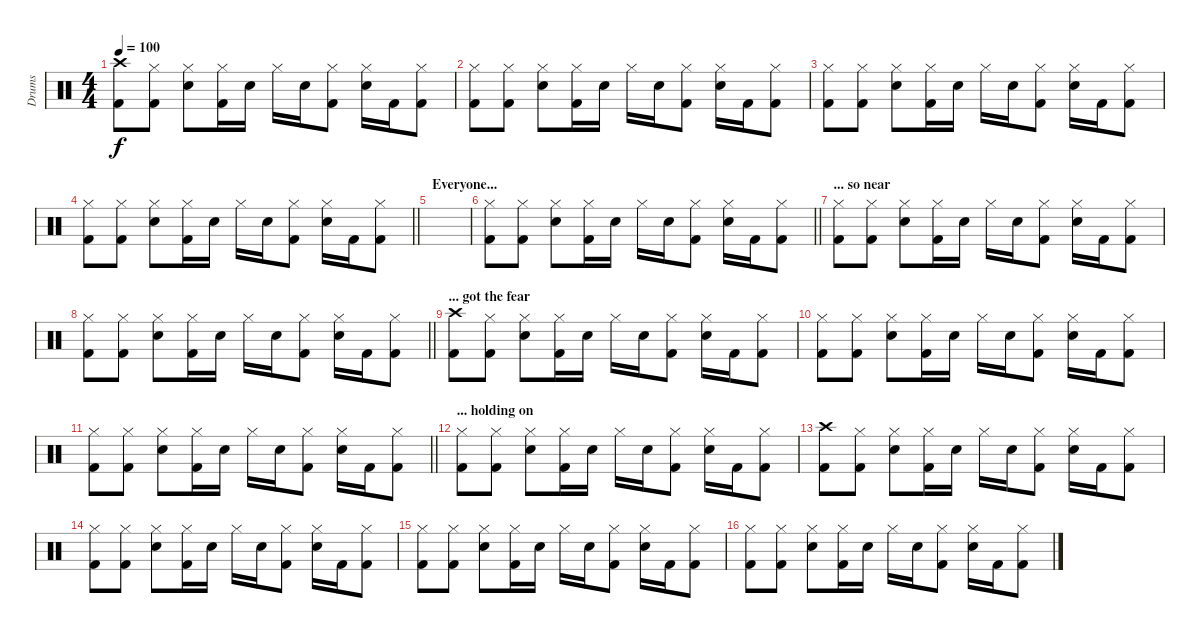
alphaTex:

\track ("Drums" "Drums") {instrument percussion}
\staff {score}
\articulation defaults
\ts (4 4)
\tempo 100
\clef neutral
\ks c
("Crash high (hit)" "Kick (hit) 2").8{dy f} ("Hi-Hat (closed)" "Kick (hit) 2").8 ("Hi-Hat (closed)" "Snare (hit) 2").8 ("Hi-Hat (closed)" "Kick (hit) 2").16 "Snare (hit) 2".16 "Hi-Hat (closed)".16 "Snare (hit) 2".16 ("Hi-Hat (closed)" "Kick (hit) 2").8 ("Hi-Hat (closed)" "Snare (hit) 2").16 "Kick (hit) 2".16 ("Hi-Hat (closed)" "Kick (hit) 2").8 |
("Hi-Hat (closed)" "Kick (hit) 2").8 ("Hi-Hat (closed)" "Kick (hit) 2").8 ("Hi-Hat (closed)" "Snare (hit) 2").8 ("Hi-Hat (closed)" "Kick (hit) 2").16 "Snare (hit) 2".16 "Hi-Hat (closed)".16 "Snare (hit) 2".16 ("Hi-Hat (closed)" "Kick (hit) 2").8 ("Hi-Hat (closed)" "Snare (hit) 2").16 "Kick (hit) 2".16 ("Hi-Hat (closed)" "Kick (hit) 2").8 |
("Hi-Hat (closed)" "Kick (hit) 2").8 ("Hi-Hat (closed)" "Kick (hit) 2").8 ("Hi-Hat (closed)" "Snare (hit) 2").8 ("Hi-Hat (closed)" "Kick (hit) 2").16 "Snare (hit) 2".16 "Hi-Hat (closed)".16 "Snare (hit) 2".16 ("Hi-Hat (closed)" "Kick (hit) 2").8 ("Hi-Hat (closed)" "Snare (hit) 2").16 "Kick (hit) 2".16 ("Hi-Hat (closed)" "Kick (hit) 2").8 |
\barLineRight lightlight
("Hi-Hat (closed)" "Kick (hit) 2").8 ("Hi-Hat (closed)" "Kick (hit) 2").8 ("Hi-Hat (closed)" "Snare (hit) 2").8 ("Hi-Hat (closed)" "Kick (hit) 2").16 "Snare (hit) 2".16 "Hi-Hat (closed)".16 "Snare (hit) 2".16 ("Hi-Hat (closed)" "Kick (hit) 2").8 ("Hi-Hat (closed)" "Snare (hit) 2").16 "Kick (hit) 2".16 ("Hi-Hat (closed)" "Kick (hit) 2").8 |
\section ("" "Everyone...")
|
\barLineRight lightlight
("Hi-Hat (closed)" "Kick (hit) 2").8 ("Hi-Hat (closed)" "Kick (hit) 2").8 ("Hi-Hat (closed)" "Snare (hit) 2").8 ("Hi-Hat (closed)" "Kick (hit) 2").16 "Snare (hit) 2".16 "Hi-Hat (closed)".16 "Snare (hit) 2".16 ("Hi-Hat (closed)" "Kick (hit) 2").8 ("Hi-Hat (closed)" "Snare (hit) 2").16 "Kick (hit) 2".16 ("Hi-Hat (closed)" "Kick (hit) 2").8 |
\section ("" "... so near")
("Hi-Hat (closed)" "Kick (hit) 2").8 ("Hi-Hat (closed)" "Kick (hit) 2").8 ("Hi-Hat (closed)" "Snare (hit) 2").8 ("Hi-Hat (closed)" "Kick (hit) 2").16 "Snare (hit) 2".16 "Hi-Hat (closed)".16 "Snare (hit) 2".16 ("Hi-Hat (closed)" "Kick (hit) 2").8 ("Hi-Hat (closed)" "Snare (hit) 2").16 "Kick (hit) 2".16 ("Hi-Hat (closed)" "Kick (hit) 2").8 |
\barLineRight lightlight
("Hi-Hat (closed)" "Kick (hit) 2").8 ("Hi-Hat (closed)" "Kick (hit) 2").8 ("Hi-Hat (closed)" "Snare (hit) 2").8 ("Hi-Hat (closed)" "Kick (hit) 2").16 "Snare (hit) 2".16 "Hi-Hat (closed)".16 "Snare (hit) 2".16 ("Hi-Hat (closed)" "Kick (hit) 2").8 ("Hi-Hat (closed)" "Snare (hit) 2").16 "Kick (hit) 2".16 ("Hi-Hat (closed)" "Kick (hit) 2").8 |
\section ("" "... got the fear")
("Crash high (hit)" "Kick (hit) 2").8 ("Hi-Hat (closed)" "Kick (hit) 2").8 ("Hi-Hat (closed)" "Snare (hit) 2").8 ("Hi-Hat (closed)" "Kick (hit) 2").16 "Snare (hit) 2".16 "Hi-Hat (closed)".16 "Snare (hit) 2".16 ("Hi-Hat (closed)" "Kick (hit) 2").8 ("Hi-Hat (closed)" "Snare (hit) 2").16 "Kick (hit) 2".16 ("Hi-Hat (closed)" "Kick (hit) 2").8 |
("Hi-Hat (closed)" "Kick (hit) 2").8 ("Hi-Hat (closed)" "Kick (hit) 2").8 ("Hi-Hat (closed)" "Snare (hit) 2").8 ("Hi-Hat (closed)" "Kick (hit) 2").16 "Snare (hit) 2".16 "Hi-Hat (closed)".16 "Snare (hit) 2".16 ("Hi-Hat (closed)" "Kick (hit) 2").8 ("Hi-Hat (closed)" "Snare (hit) 2").16 "Kick (hit) 2".16 ("Hi-Hat (closed)" "Kick (hit) 2").8 |
\barLineRight lightlight
("Hi-Hat (closed)" "Kick (hit) 2").8 ("Hi-Hat (closed)" "Kick (hit) 2").8 ("Hi-Hat (closed)" "Snare (hit) 2").8 ("Hi-Hat (closed)" "Kick (hit) 2").16 "Snare (hit) 2".16 "Hi-Hat (closed)".16 "Snare (hit) 2".16 ("Hi-Hat (closed)" "Kick (hit) 2").8 ("Hi-Hat (closed)" "Snare (hit) 2").16 "Kick (hit) 2".16 ("Hi-Hat (closed)" "Kick (hit) 2").8 |
\section ("" "... holding on")
("Hi-Hat (closed)" "Kick (hit) 2").8 ("Hi-Hat (closed)" "Kick (hit) 2").8 ("Hi-Hat (closed)" "Snare (hit) 2").8 ("Hi-Hat (closed)" "Kick (hit) 2").16 "Snare (hit) 2".16 "Hi-Hat (closed)".16 "Snare (hit) 2".16 ("Hi-Hat (closed)" "Kick (hit) 2").8 ("Hi-Hat (closed)" "Snare (hit) 2").16 "Kick (hit) 2".16 ("Hi-Hat (closed)" "Kick (hit) 2").8 |
("Crash high (hit)" "Kick (hit) 2").8 ("Hi-Hat (closed)" "Kick (hit) 2").8 ("Hi-Hat (closed)" "Snare (hit) 2").8 ("Hi-Hat (closed)" "Kick (hit) 2").16 "Snare (hit) 2".16 "Hi-Hat (closed)".16 "Snare (hit) 2".16 ("Hi-Hat (closed)" "Kick (hit) 2").8 ("Hi-Hat (closed)" "Snare (hit) 2").16 "Kick (hit) 2".16 ("Hi-Hat (closed)" "Kick (hit) 2").8 |
("Hi-Hat (closed)" "Kick (hit) 2").8 ("Hi-Hat (closed)" "Kick (hit) 2").8 ("Hi-Hat (closed)" "Snare (hit) 2").8 ("Hi-Hat (closed)" "Kick (hit) 2").16 "Snare (hit) 2".16 "Hi-Hat (closed)".16 "Snare (hit) 2".16 ("Hi-Hat (closed)" "Kick (hit) 2").8 ("Hi-Hat (closed)" "Snare (hit) 2").16 "Kick (hit) 2".16 ("Hi-Hat (closed)" "Kick (hit) 2").8 |
("Hi-Hat (closed)" "Kick (hit) 2").8 ("Hi-Hat (closed)" "Kick (hit) 2").8 ("Hi-Hat (closed)" "Snare (hit) 2").8 ("Hi-Hat (closed)" "Kick (hit) 2").16 "Snare (hit) 2".16 "Hi-Hat (closed)".16 "Snare (hit) 2".16 ("Hi-Hat (closed)" "Kick (hit) 2").8 ("Hi-Hat (closed)" "Snare (hit) 2").16 "Kick (hit) 2".16 ("Hi-Hat (closed)" "Kick (hit) 2").8 |
("Hi-Hat (closed)" "Kick (hit) 2").8 ("Hi-Hat (closed)" "Kick (hit) 2").8 ("Hi-Hat (closed)" "Snare (hit) 2").8 ("Hi-Hat (closed)" "Kick (hit) 2").16 "Snare (hit) 2".16 "Hi-Hat (closed)".16 "Snare (hit) 2".16 ("Hi-Hat (closed)" "Kick (hit) 2").8 ("Hi-Hat (closed)" "Snare (hit) 2").16 "Kick (hit) 2".16 ("Hi-Hat (closed)" "Kick (hit) 2").8
